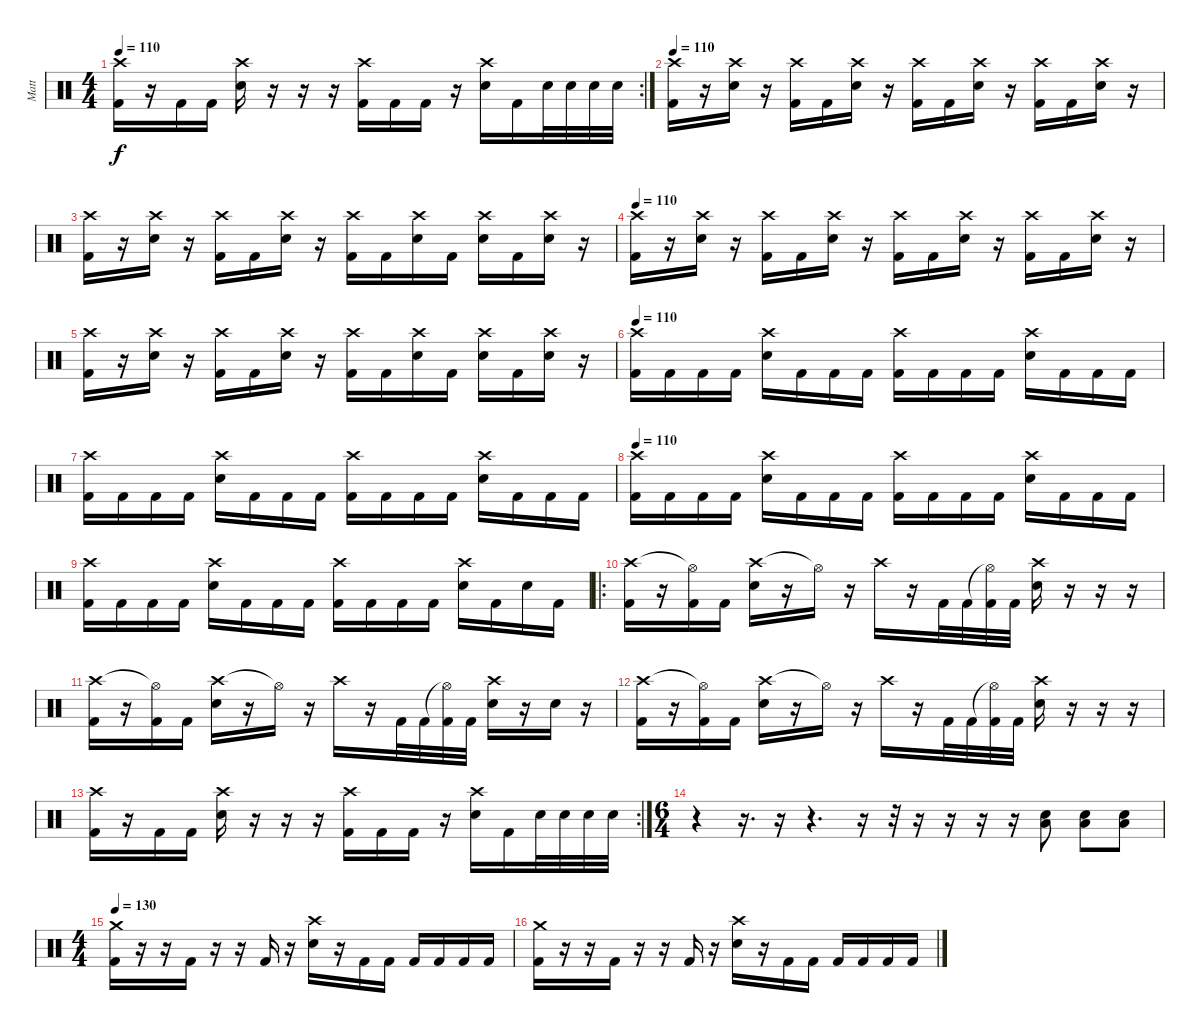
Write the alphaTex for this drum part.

\track ("Matt" "Matt") {instrument percussion}
\staff {score}
\articulation defaults
\rc 2
\ts (4 4)
\tempo 110
\clef neutral
\ks c
("Crash high (hit)" "Kick (hit) 2").16{dy f} r.16 "Kick (hit) 2".16 "Kick (hit) 2".16 ("Crash high (hit)" "Snare (hit) 2").16 r.16 r.16 r.16 ("Crash high (hit)" "Kick (hit) 2").16 "Kick (hit) 2".16 "Kick (hit) 2".16 r.16 ("Crash high (hit)" "Snare (hit) 2").16 "Kick (hit) 2".16 "Snare (hit) 2".32 "Snare (hit) 2".32 "Snare (hit) 2".32 "Snare (hit) 2".32 |
\tempo 110
("Crash high (hit)" "Kick (hit) 2").16 r.16 ("Crash high (hit)" "Snare (hit) 2").16 r.16 ("Crash high (hit)" "Kick (hit) 2").16 "Kick (hit) 2".16 ("Crash high (hit)" "Snare (hit) 2").16 r.16 ("Crash high (hit)" "Kick (hit) 2").16 "Kick (hit) 2".16 ("Crash high (hit)" "Snare (hit) 2").16 r.16 ("Crash high (hit)" "Kick (hit) 2").16 "Kick (hit) 2".16 ("Crash high (hit)" "Snare (hit) 2").16 r.16 |
("Crash high (hit)" "Kick (hit) 2").16 r.16 ("Crash high (hit)" "Snare (hit) 2").16 r.16 ("Crash high (hit)" "Kick (hit) 2").16 "Kick (hit) 2".16 ("Crash high (hit)" "Snare (hit) 2").16 r.16 ("Crash high (hit)" "Kick (hit) 2").16 "Kick (hit) 2".16 ("Crash high (hit)" "Snare (hit) 2").16 "Kick (hit) 2".16 ("Crash high (hit)" "Snare (hit) 2").16 "Kick (hit) 2".16 ("Crash high (hit)" "Snare (hit) 2").16 r.16 |
\tempo 110
("Crash high (hit)" "Kick (hit) 2").16 r.16 ("Crash high (hit)" "Snare (hit) 2").16 r.16 ("Crash high (hit)" "Kick (hit) 2").16 "Kick (hit) 2".16 ("Crash high (hit)" "Snare (hit) 2").16 r.16 ("Crash high (hit)" "Kick (hit) 2").16 "Kick (hit) 2".16 ("Crash high (hit)" "Snare (hit) 2").16 r.16 ("Crash high (hit)" "Kick (hit) 2").16 "Kick (hit) 2".16 ("Crash high (hit)" "Snare (hit) 2").16 r.16 |
("Crash high (hit)" "Kick (hit) 2").16 r.16 ("Crash high (hit)" "Snare (hit) 2").16 r.16 ("Crash high (hit)" "Kick (hit) 2").16 "Kick (hit) 2".16 ("Crash high (hit)" "Snare (hit) 2").16 r.16 ("Crash high (hit)" "Kick (hit) 2").16 "Kick (hit) 2".16 ("Crash high (hit)" "Snare (hit) 2").16 "Kick (hit) 2".16 ("Crash high (hit)" "Snare (hit) 2").16 "Kick (hit) 2".16 ("Crash high (hit)" "Snare (hit) 2").16 r.16 |
\tempo 110
("Crash high (hit)" "Kick (hit) 2").16 "Kick (hit) 2".16 "Kick (hit) 2".16 "Kick (hit) 2".16 ("Crash high (hit)" "Snare (hit) 2").16 "Kick (hit) 2".16 "Kick (hit) 2".16 "Kick (hit) 2".16 ("Crash high (hit)" "Kick (hit) 2").16 "Kick (hit) 2".16 "Kick (hit) 2".16 "Kick (hit) 2".16 ("Crash high (hit)" "Snare (hit) 2").16 "Kick (hit) 2".16 "Kick (hit) 2".16 "Kick (hit) 2".16 |
("Crash high (hit)" "Kick (hit) 2").16 "Kick (hit) 2".16 "Kick (hit) 2".16 "Kick (hit) 2".16 ("Crash high (hit)" "Snare (hit) 2").16 "Kick (hit) 2".16 "Kick (hit) 2".16 "Kick (hit) 2".16 ("Crash high (hit)" "Kick (hit) 2").16 "Kick (hit) 2".16 "Kick (hit) 2".16 "Kick (hit) 2".16 ("Crash high (hit)" "Snare (hit) 2").16 "Kick (hit) 2".16 "Kick (hit) 2".16 "Kick (hit) 2".16 |
\tempo 110
("Crash high (hit)" "Kick (hit) 2").16 "Kick (hit) 2".16 "Kick (hit) 2".16 "Kick (hit) 2".16 ("Crash high (hit)" "Snare (hit) 2").16 "Kick (hit) 2".16 "Kick (hit) 2".16 "Kick (hit) 2".16 ("Crash high (hit)" "Kick (hit) 2").16 "Kick (hit) 2".16 "Kick (hit) 2".16 "Kick (hit) 2".16 ("Crash high (hit)" "Snare (hit) 2").16 "Kick (hit) 2".16 "Kick (hit) 2".16 "Kick (hit) 2".16 |
("Crash high (hit)" "Kick (hit) 2").16 "Kick (hit) 2".16 "Kick (hit) 2".16 "Kick (hit) 2".16 ("Crash high (hit)" "Snare (hit) 2").16 "Kick (hit) 2".16 "Kick (hit) 2".16 "Kick (hit) 2".16 ("Crash high (hit)" "Kick (hit) 2").16 "Kick (hit) 2".16 "Kick (hit) 2".16 "Kick (hit) 2".16 ("Crash high (hit)" "Snare (hit) 2").16 "Kick (hit) 2".16 "Snare (hit) 2".16 "Kick (hit) 2".16 |
\ro
("Crash high (hit)" "Kick (hit) 2").16 r.16 ("Hi-Hat (open)"{t} "Kick (hit) 2").16 "Kick (hit) 2".16 ("Crash high (hit)" "Snare (hit) 2").16 r.16 "Hi-Hat (open)"{t}.16 r.16 "Crash high (hit)".16 r.16 "Kick (hit) 2".32 "Kick (hit) 2".32 ("Hi-Hat (open)"{t} "Kick (hit) 2").32 "Kick (hit) 2".32 ("Crash high (hit)" "Snare (hit) 2").16 r.16 r.16 r.16 |
("Crash high (hit)" "Kick (hit) 2").16 r.16 ("Hi-Hat (open)"{t} "Kick (hit) 2").16 "Kick (hit) 2".16 ("Crash high (hit)" "Snare (hit) 2").16 r.16 "Hi-Hat (open)"{t}.16 r.16 "Crash high (hit)".16 r.16 "Kick (hit) 2".32 "Kick (hit) 2".32 ("Hi-Hat (open)"{t} "Kick (hit) 2").32 "Kick (hit) 2".32 ("Crash high (hit)" "Snare (hit) 2").16 r.16 "Snare (hit) 2".16 r.16 |
("Crash high (hit)" "Kick (hit) 2").16 r.16 ("Hi-Hat (open)"{t} "Kick (hit) 2").16 "Kick (hit) 2".16 ("Crash high (hit)" "Snare (hit) 2").16 r.16 "Hi-Hat (open)"{t}.16 r.16 "Crash high (hit)".16 r.16 "Kick (hit) 2".32 "Kick (hit) 2".32 ("Hi-Hat (open)"{t} "Kick (hit) 2").32 "Kick (hit) 2".32 ("Crash high (hit)" "Snare (hit) 2").16 r.16 r.16 r.16 |
\rc 2
("Crash high (hit)" "Kick (hit) 2").16 r.16 "Kick (hit) 2".16 "Kick (hit) 2".16 ("Crash high (hit)" "Snare (hit) 2").16 r.16 r.16 r.16 ("Crash high (hit)" "Kick (hit) 2").16 "Kick (hit) 2".16 "Kick (hit) 2".16 r.16 ("Crash high (hit)" "Snare (hit) 2").16 "Kick (hit) 2".16 "Snare (hit) 2".32 "Snare (hit) 2".32 "Snare (hit) 2".32 "Snare (hit) 2".32 |
\ts (6 4)
r.4 r.16{d} r.16 r.4{d} r.16 r.32 r.16 r.16 r.16 r.16 ("Low Floor Tom (hit)" "Snare (hit) 2").8 ("Low Floor Tom (hit)" "Snare (hit) 2").8 ("Low Floor Tom (hit)" "Snare (hit) 2").8 |
\ts (4 4)
\tempo 130
("Crash medium (hit)" "Kick (hit) 2").16 r.16 r.16 "Kick (hit) 2".16 r.16 r.16 "Kick (hit) 2".16 r.16 ("Crash high (hit)" "Snare (hit) 2").16 r.16 "Kick (hit) 2".16 "Kick (hit) 2".16 "Kick (hit) 2".16 "Kick (hit) 2".16 "Kick (hit) 2".16 "Kick (hit) 2".16 |
("Crash medium (hit)" "Kick (hit) 2").16 r.16 r.16 "Kick (hit) 2".16 r.16 r.16 "Kick (hit) 2".16 r.16 ("Crash high (hit)" "Snare (hit) 2").16 r.16 "Kick (hit) 2".16 "Kick (hit) 2".16 "Kick (hit) 2".16 "Kick (hit) 2".16 "Kick (hit) 2".16 "Kick (hit) 2".16
